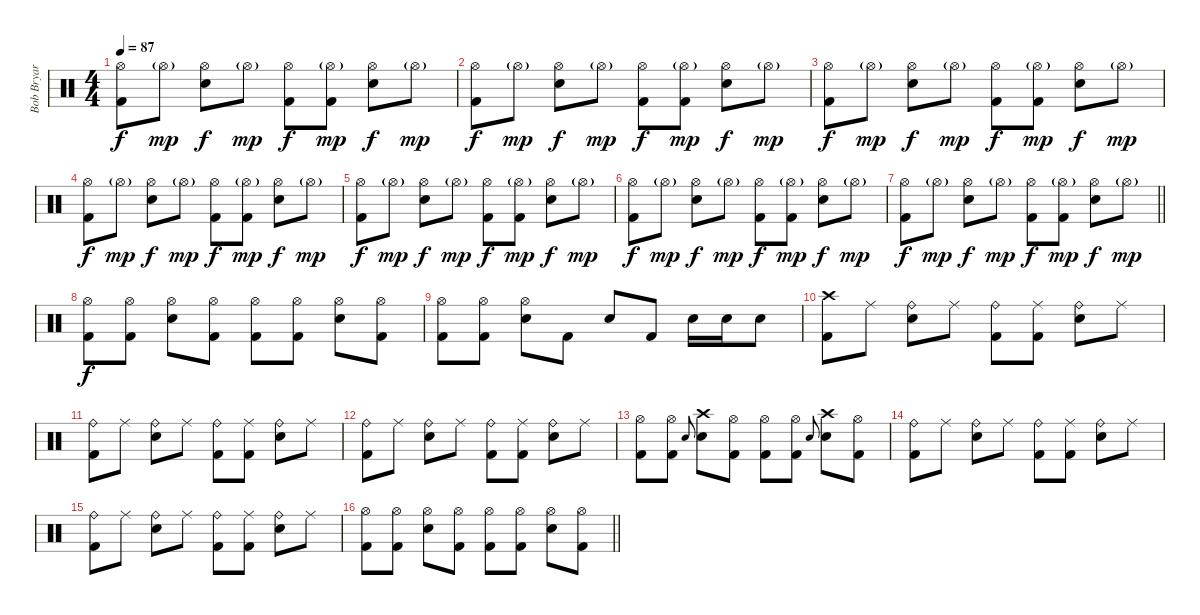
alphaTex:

\track ("Bob Bryar [Drums]" "Bob Bryar ") {instrument percussion}
\staff {score}
\articulation defaults
\ts (4 4)
\tempo 87
\clef neutral
\ks c
("Hi-Hat (open)" "Kick (hit) 2").8{dy f} "Hi-Hat (open)"{g}.8{dy mp} ("Hi-Hat (open)" "Electric Snare (hit)").8{dy f} "Hi-Hat (open)"{g}.8{dy mp} ("Hi-Hat (open)" "Kick (hit) 2").8{dy f} ("Hi-Hat (open)"{g} "Kick (hit) 2").8{dy mp} ("Hi-Hat (open)" "Electric Snare (hit)").8{dy f} "Hi-Hat (open)"{g}.8{dy mp} |
("Hi-Hat (open)" "Kick (hit) 2").8{dy f} "Hi-Hat (open)"{g}.8{dy mp} ("Hi-Hat (open)" "Electric Snare (hit)").8{dy f} "Hi-Hat (open)"{g}.8{dy mp} ("Hi-Hat (open)" "Kick (hit) 2").8{dy f} ("Hi-Hat (open)"{g} "Kick (hit) 2").8{dy mp} ("Hi-Hat (open)" "Electric Snare (hit)").8{dy f} "Hi-Hat (open)"{g}.8{dy mp} |
("Hi-Hat (open)" "Kick (hit) 2").8{dy f} "Hi-Hat (open)"{g}.8{dy mp} ("Hi-Hat (open)" "Electric Snare (hit)").8{dy f} "Hi-Hat (open)"{g}.8{dy mp} ("Hi-Hat (open)" "Kick (hit) 2").8{dy f} ("Hi-Hat (open)"{g} "Kick (hit) 2").8{dy mp} ("Hi-Hat (open)" "Electric Snare (hit)").8{dy f} "Hi-Hat (open)"{g}.8{dy mp} |
("Hi-Hat (open)" "Kick (hit) 2").8{dy f} "Hi-Hat (open)"{g}.8{dy mp} ("Hi-Hat (open)" "Electric Snare (hit)").8{dy f} "Hi-Hat (open)"{g}.8{dy mp} ("Hi-Hat (open)" "Kick (hit) 2").8{dy f} ("Hi-Hat (open)"{g} "Kick (hit) 2").8{dy mp} ("Hi-Hat (open)" "Electric Snare (hit)").8{dy f} "Hi-Hat (open)"{g}.8{dy mp} |
("Hi-Hat (open)" "Kick (hit) 2").8{dy f} "Hi-Hat (open)"{g}.8{dy mp} ("Hi-Hat (open)" "Electric Snare (hit)").8{dy f} "Hi-Hat (open)"{g}.8{dy mp} ("Hi-Hat (open)" "Kick (hit) 2").8{dy f} ("Hi-Hat (open)"{g} "Kick (hit) 2").8{dy mp} ("Hi-Hat (open)" "Electric Snare (hit)").8{dy f} "Hi-Hat (open)"{g}.8{dy mp} |
("Hi-Hat (open)" "Kick (hit) 2").8{dy f} "Hi-Hat (open)"{g}.8{dy mp} ("Hi-Hat (open)" "Electric Snare (hit)").8{dy f} "Hi-Hat (open)"{g}.8{dy mp} ("Hi-Hat (open)" "Kick (hit) 2").8{dy f} ("Hi-Hat (open)"{g} "Kick (hit) 2").8{dy mp} ("Hi-Hat (open)" "Electric Snare (hit)").8{dy f} "Hi-Hat (open)"{g}.8{dy mp} |
\barLineRight lightlight
("Hi-Hat (open)" "Kick (hit) 2").8{dy f} "Hi-Hat (open)"{g}.8{dy mp} ("Hi-Hat (open)" "Electric Snare (hit)").8{dy f} "Hi-Hat (open)"{g}.8{dy mp} ("Hi-Hat (open)" "Kick (hit) 2").8{dy f} ("Hi-Hat (open)"{g} "Kick (hit) 2").8{dy mp} ("Hi-Hat (open)" "Electric Snare (hit)").8{dy f} "Hi-Hat (open)"{g}.8{dy mp} |
("Hi-Hat (open)" "Kick (hit) 2").8{dy f} ("Hi-Hat (open)" "Kick (hit) 2").8 ("Hi-Hat (open)" "Electric Snare (hit)").8 ("Hi-Hat (open)" "Kick (hit) 2").8 ("Hi-Hat (open)" "Kick (hit) 2").8 ("Hi-Hat (open)" "Kick (hit) 2").8 ("Hi-Hat (open)" "Electric Snare (hit)").8 ("Hi-Hat (open)" "Kick (hit) 2").8 |
("Hi-Hat (open)" "Kick (hit) 2").8 ("Hi-Hat (open)" "Kick (hit) 2").8 ("Hi-Hat (open)" "Electric Snare (hit)").8 "Kick (hit) 2".8 "Electric Snare (hit)".8 "Kick (hit) 2".8 "Electric Snare (hit)".16 "Electric Snare (hit)".16 "Electric Snare (hit)".8 |
("Crash high (hit)" "Kick (hit) 2").8 "Ride (middle)".8 ("Ride (bell)" "Electric Snare (hit)").8 "Ride (middle)".8 ("Ride (bell)" "Kick (hit) 2").8 ("Ride (middle)" "Kick (hit) 2").8 ("Ride (bell)" "Electric Snare (hit)").8 "Ride (middle)".8 |
("Ride (bell)" "Kick (hit) 2").8 "Ride (middle)".8 ("Ride (bell)" "Electric Snare (hit)").8 "Ride (middle)".8 ("Ride (bell)" "Kick (hit) 2").8 ("Ride (middle)" "Kick (hit) 2").8 ("Ride (bell)" "Electric Snare (hit)").8 "Ride (middle)".8 |
("Ride (bell)" "Kick (hit) 2").8 "Ride (middle)".8 ("Ride (bell)" "Electric Snare (hit)").8 "Ride (middle)".8 ("Ride (bell)" "Kick (hit) 2").8 ("Ride (middle)" "Kick (hit) 2").8 ("Ride (bell)" "Electric Snare (hit)").8 "Ride (middle)".8 |
("Hi-Hat (open)" "Kick (hit) 2").8 ("Hi-Hat (open)" "Kick (hit) 2").8 "Electric Snare (hit)".8{gr onbeat} ("Crash high (hit)" "Electric Snare (hit)").8 ("Hi-Hat (open)" "Kick (hit) 2").8 ("Hi-Hat (open)" "Kick (hit) 2").8 ("Hi-Hat (open)" "Kick (hit) 2").8 "Electric Snare (hit)".8{gr onbeat} ("Crash high (hit)" "Electric Snare (hit)").8 ("Hi-Hat (open)" "Kick (hit) 2").8 |
("Ride (bell)" "Kick (hit) 2").8 "Ride (middle)".8 ("Ride (bell)" "Electric Snare (hit)").8 "Ride (middle)".8 ("Ride (bell)" "Kick (hit) 2").8 ("Ride (middle)" "Kick (hit) 2").8 ("Ride (bell)" "Electric Snare (hit)").8 "Ride (middle)".8 |
("Ride (bell)" "Kick (hit) 2").8 "Ride (middle)".8 ("Ride (bell)" "Electric Snare (hit)").8 "Ride (middle)".8 ("Ride (bell)" "Kick (hit) 2").8 ("Ride (middle)" "Kick (hit) 2").8 ("Ride (bell)" "Electric Snare (hit)").8 "Ride (middle)".8 |
\barLineRight lightlight
("Hi-Hat (open)" "Kick (hit) 2").8 ("Hi-Hat (open)" "Kick (hit) 2").8 ("Hi-Hat (open)" "Electric Snare (hit)").8 ("Hi-Hat (open)" "Kick (hit) 2").8 ("Hi-Hat (open)" "Kick (hit) 2").8 ("Hi-Hat (open)" "Kick (hit) 2").8 ("Hi-Hat (open)" "Electric Snare (hit)").8 ("Hi-Hat (open)" "Kick (hit) 2").8
